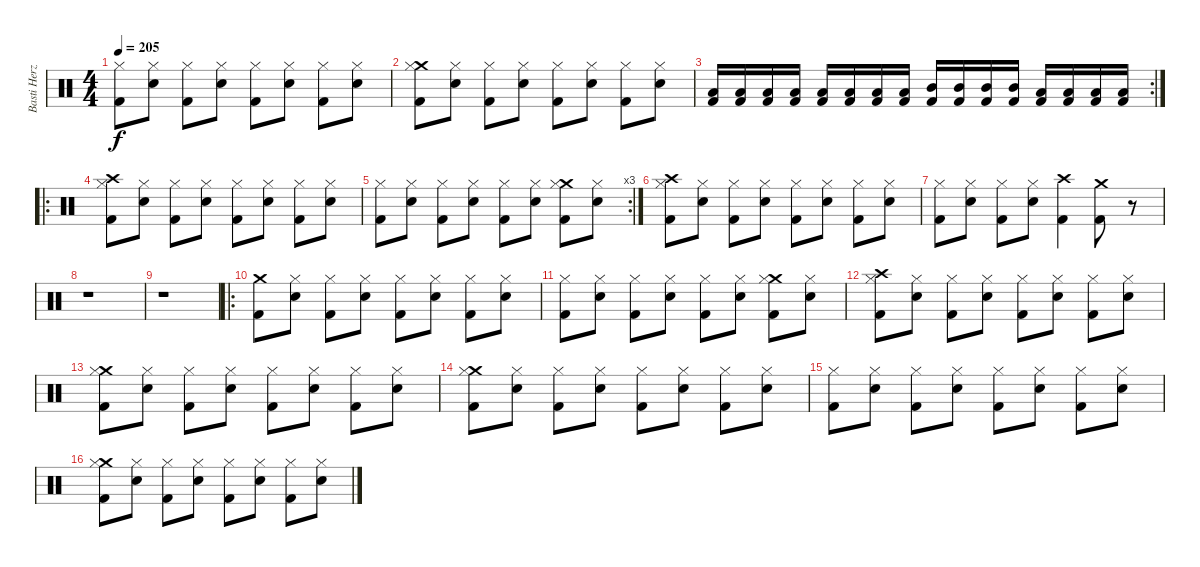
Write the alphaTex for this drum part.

\track ("Basti Herzog" "Basti Herz") {instrument percussion}
\staff {score}
\articulation defaults
\ts (4 4)
\tempo 205
\clef neutral
\ks c
("Hi-Hat (closed)" "Kick (hit) 2").8{dy f} ("Hi-Hat (closed)" "Snare (hit) 2").8 ("Hi-Hat (closed)" "Kick (hit) 2").8 ("Hi-Hat (closed)" "Snare (hit) 2").8 ("Hi-Hat (closed)" "Kick (hit) 2").8 ("Hi-Hat (closed)" "Snare (hit) 2").8 ("Hi-Hat (closed)" "Kick (hit) 2").8 ("Hi-Hat (closed)" "Snare (hit) 2").8 |
("Crash medium (hit)" "Hi-Hat (closed)" "Kick (hit) 2").8 ("Hi-Hat (closed)" "Snare (hit) 2").8 ("Hi-Hat (closed)" "Kick (hit) 2").8 ("Hi-Hat (closed)" "Snare (hit) 2").8 ("Hi-Hat (closed)" "Kick (hit) 2").8 ("Hi-Hat (closed)" "Snare (hit) 2").8 ("Hi-Hat (closed)" "Kick (hit) 2").8 ("Hi-Hat (closed)" "Snare (hit) 2").8 |
\rc 2
("Low Tom (hit)" "Kick (hit) 2").16 ("Low Tom (hit)" "Kick (hit) 2").16 ("Low Tom (hit)" "Kick (hit) 2").16 ("Low Tom (hit)" "Kick (hit) 2").16 ("Low Floor Tom (hit)" "Kick (hit) 2").16 ("Low Floor Tom (hit)" "Kick (hit) 2").16 ("Low Floor Tom (hit)" "Kick (hit) 2").16 ("Low Floor Tom (hit)" "Kick (hit) 2").16 ("Mid Tom (hit)" "Kick (hit) 2").16 ("Mid Tom (hit)" "Kick (hit) 2").16 ("Mid Tom (hit)" "Kick (hit) 2").16 ("Mid Tom (hit)" "Kick (hit) 2").16 ("Low Tom (hit)" "Kick (hit) 2").16 ("Low Tom (hit)" "Kick (hit) 2").16 ("Low Tom (hit)" "Kick (hit) 2").16 ("Low Tom (hit)" "Kick (hit) 2").16 |
\ro
("Crash high (hit)" "Hi-Hat (closed)" "Kick (hit) 2").8 ("Hi-Hat (closed)" "Snare (hit) 2").8 ("Hi-Hat (closed)" "Kick (hit) 2").8 ("Hi-Hat (closed)" "Snare (hit) 2").8 ("Hi-Hat (closed)" "Kick (hit) 2").8 ("Hi-Hat (closed)" "Snare (hit) 2").8 ("Hi-Hat (closed)" "Kick (hit) 2").8 ("Hi-Hat (closed)" "Snare (hit) 2").8 |
\rc 3
("Hi-Hat (closed)" "Kick (hit) 2").8 ("Hi-Hat (closed)" "Snare (hit) 2").8 ("Hi-Hat (closed)" "Kick (hit) 2").8 ("Hi-Hat (closed)" "Snare (hit) 2").8 ("Hi-Hat (closed)" "Kick (hit) 2").8 ("Hi-Hat (closed)" "Snare (hit) 2").8 ("Crash medium (hit)" "Hi-Hat (closed)" "Kick (hit) 2").8 ("Hi-Hat (closed)" "Snare (hit) 2").8 |
("Crash high (hit)" "Hi-Hat (closed)" "Kick (hit) 2").8 ("Hi-Hat (closed)" "Snare (hit) 2").8 ("Hi-Hat (closed)" "Kick (hit) 2").8 ("Hi-Hat (closed)" "Snare (hit) 2").8 ("Hi-Hat (closed)" "Kick (hit) 2").8 ("Hi-Hat (closed)" "Snare (hit) 2").8 ("Hi-Hat (closed)" "Kick (hit) 2").8 ("Hi-Hat (closed)" "Snare (hit) 2").8 |
("Hi-Hat (closed)" "Kick (hit) 2").8 ("Hi-Hat (closed)" "Snare (hit) 2").8 ("Hi-Hat (closed)" "Kick (hit) 2").8 ("Hi-Hat (closed)" "Snare (hit) 2").8 ("Crash high (hit)" "Kick (hit) 2").4 ("Crash medium (hit)" "Kick (hit) 2").8 r.8 |
r.1 |
r.1 |
\ro
("Crash medium (hit)" "Kick (hit) 2").8 ("Hi-Hat (closed)" "Snare (hit) 2").8 ("Hi-Hat (closed)" "Kick (hit) 2").8 ("Hi-Hat (closed)" "Snare (hit) 2").8 ("Hi-Hat (closed)" "Kick (hit) 2").8 ("Hi-Hat (closed)" "Snare (hit) 2").8 ("Hi-Hat (closed)" "Kick (hit) 2").8 ("Hi-Hat (closed)" "Snare (hit) 2").8 |
("Hi-Hat (closed)" "Kick (hit) 2").8 ("Hi-Hat (closed)" "Snare (hit) 2").8 ("Hi-Hat (closed)" "Kick (hit) 2").8 ("Hi-Hat (closed)" "Snare (hit) 2").8 ("Hi-Hat (closed)" "Kick (hit) 2").8 ("Hi-Hat (closed)" "Snare (hit) 2").8 ("Crash medium (hit)" "Hi-Hat (closed)" "Kick (hit) 2").8 ("Hi-Hat (closed)" "Snare (hit) 2").8 |
("Crash high (hit)" "Hi-Hat (closed)" "Kick (hit) 2").8 ("Hi-Hat (closed)" "Snare (hit) 2").8 ("Hi-Hat (closed)" "Kick (hit) 2").8 ("Hi-Hat (closed)" "Snare (hit) 2").8 ("Hi-Hat (closed)" "Kick (hit) 2").8 ("Hi-Hat (closed)" "Snare (hit) 2").8 ("Hi-Hat (closed)" "Kick (hit) 2").8 ("Hi-Hat (closed)" "Snare (hit) 2").8 |
("Crash medium (hit)" "Hi-Hat (closed)" "Kick (hit) 2").8 ("Hi-Hat (closed)" "Snare (hit) 2").8 ("Hi-Hat (closed)" "Kick (hit) 2").8 ("Hi-Hat (closed)" "Snare (hit) 2").8 ("Hi-Hat (closed)" "Kick (hit) 2").8 ("Hi-Hat (closed)" "Snare (hit) 2").8 ("Hi-Hat (closed)" "Kick (hit) 2").8 ("Hi-Hat (closed)" "Snare (hit) 2").8 |
("Crash medium (hit)" "Hi-Hat (closed)" "Kick (hit) 2").8 ("Hi-Hat (closed)" "Snare (hit) 2").8 ("Hi-Hat (closed)" "Kick (hit) 2").8 ("Hi-Hat (closed)" "Snare (hit) 2").8 ("Hi-Hat (closed)" "Kick (hit) 2").8 ("Hi-Hat (closed)" "Snare (hit) 2").8 ("Hi-Hat (closed)" "Kick (hit) 2").8 ("Hi-Hat (closed)" "Snare (hit) 2").8 |
("Hi-Hat (closed)" "Kick (hit) 2").8 ("Hi-Hat (closed)" "Snare (hit) 2").8 ("Hi-Hat (closed)" "Kick (hit) 2").8 ("Hi-Hat (closed)" "Snare (hit) 2").8 ("Hi-Hat (closed)" "Kick (hit) 2").8 ("Hi-Hat (closed)" "Snare (hit) 2").8 ("Hi-Hat (closed)" "Kick (hit) 2").8 ("Hi-Hat (closed)" "Snare (hit) 2").8 |
("Crash medium (hit)" "Hi-Hat (closed)" "Kick (hit) 2").8 ("Hi-Hat (closed)" "Snare (hit) 2").8 ("Hi-Hat (closed)" "Kick (hit) 2").8 ("Hi-Hat (closed)" "Snare (hit) 2").8 ("Hi-Hat (closed)" "Kick (hit) 2").8 ("Hi-Hat (closed)" "Snare (hit) 2").8 ("Hi-Hat (closed)" "Kick (hit) 2").8 ("Hi-Hat (closed)" "Snare (hit) 2").8
